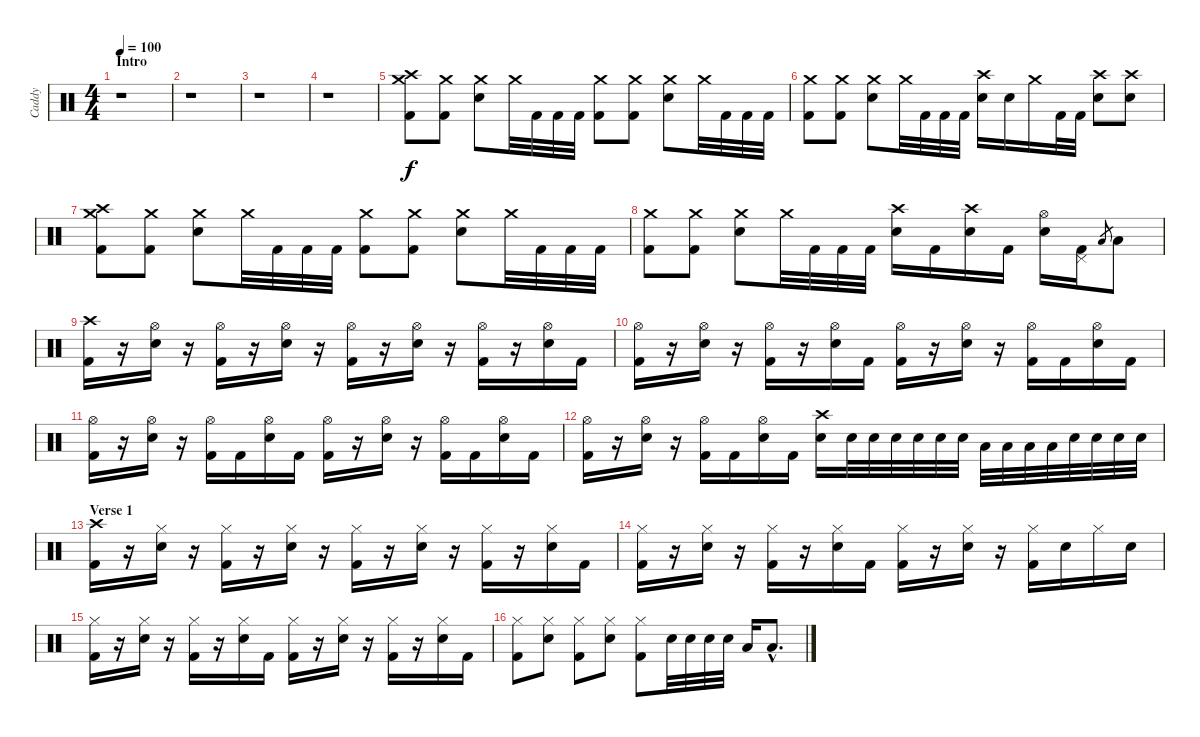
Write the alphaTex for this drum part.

\track ("Caddy" "Caddy") {instrument percussion}
\staff {score}
\articulation defaults
\ts (4 4)
\section ("" "Intro")
\tempo 100
\clef neutral
\ks c
r.1{dy f} |
r.1 |
r.1 |
r.1 |
("Crash medium (hit)" "Crash high (hit)" "Kick (hit) 2").8 ("Crash medium (hit)" "Kick (hit) 2").8 ("Crash medium (hit)" "Electric Snare (hit)").8 "Crash medium (hit)".32 "Kick (hit) 2".32 "Kick (hit) 2".32 "Kick (hit) 2".32 ("Crash medium (hit)" "Kick (hit) 2").8 ("Crash medium (hit)" "Kick (hit) 2").8 ("Crash medium (hit)" "Electric Snare (hit)").8 "Crash medium (hit)".32 "Kick (hit) 2".32 "Kick (hit) 2".32 "Kick (hit) 2".32 |
("Crash medium (hit)" "Kick (hit) 2").8 ("Crash medium (hit)" "Kick (hit) 2").8 ("Crash medium (hit)" "Electric Snare (hit)").8 "Crash medium (hit)".32 "Kick (hit) 2".32 "Kick (hit) 2".32 "Kick (hit) 2".32 ("Crash high (hit)" "Electric Snare (hit)").16 "Electric Snare (hit)".16 "Crash medium (hit)".16 "Kick (hit) 2".32 "Kick (hit) 2".32 ("Crash high (hit)" "Electric Snare (hit)").8 ("Crash high (hit)" "Electric Snare (hit)").8 |
("Crash medium (hit)" "Crash high (hit)" "Kick (hit) 2").8 ("Crash medium (hit)" "Kick (hit) 2").8 ("Crash medium (hit)" "Electric Snare (hit)").8 "Crash medium (hit)".32 "Kick (hit) 2".32 "Kick (hit) 2".32 "Kick (hit) 2".32 ("Crash medium (hit)" "Kick (hit) 2").8 ("Crash medium (hit)" "Kick (hit) 2").8 ("Crash medium (hit)" "Electric Snare (hit)").8 "Crash medium (hit)".32 "Kick (hit) 2".32 "Kick (hit) 2".32 "Kick (hit) 2".32 |
("Crash medium (hit)" "Kick (hit) 2").8 ("Crash medium (hit)" "Kick (hit) 2").8 ("Crash medium (hit)" "Electric Snare (hit)").8 "Crash medium (hit)".32 "Kick (hit) 2".32 "Kick (hit) 2".32 "Kick (hit) 2".32 ("Crash high (hit)" "Electric Snare (hit)").16 "Kick (hit) 2".16 ("Crash high (hit)" "Electric Snare (hit)").16 "Kick (hit) 2".16 ("Hi-Hat (open)" "Electric Snare (hit)").16 ("Pedal Hi-Hat (hit)" "Kick (hit) 2").16 "Low Floor Tom (hit)".8{gr} "Low Floor Tom (hit)".8 |
("Crash high (hit)" "Kick (hit) 2").16 r.16 ("Hi-Hat (open)" "Electric Snare (hit)").16 r.16 ("Hi-Hat (open)" "Kick (hit) 2").16 r.16 ("Hi-Hat (open)" "Electric Snare (hit)").16 r.16 ("Hi-Hat (open)" "Kick (hit) 2").16 r.16 ("Hi-Hat (open)" "Electric Snare (hit)").16 r.16 ("Hi-Hat (open)" "Kick (hit) 2").16 r.16 ("Hi-Hat (open)" "Electric Snare (hit)").16 "Kick (hit) 2".16 |
("Hi-Hat (open)" "Kick (hit) 2").16 r.16 ("Hi-Hat (open)" "Electric Snare (hit)").16 r.16 ("Hi-Hat (open)" "Kick (hit) 2").16 r.16 ("Hi-Hat (open)" "Electric Snare (hit)").16 "Kick (hit) 2".16 ("Hi-Hat (open)" "Kick (hit) 2").16 r.16 ("Hi-Hat (open)" "Electric Snare (hit)").16 r.16 ("Hi-Hat (open)" "Kick (hit) 2").16 "Kick (hit) 2".16 ("Hi-Hat (open)" "Electric Snare (hit)").16 "Kick (hit) 2".16 |
("Hi-Hat (open)" "Kick (hit) 2").16 r.16 ("Hi-Hat (open)" "Electric Snare (hit)").16 r.16 ("Hi-Hat (open)" "Kick (hit) 2").16 "Kick (hit) 2".16 ("Hi-Hat (open)" "Electric Snare (hit)").16 "Kick (hit) 2".16 ("Hi-Hat (open)" "Kick (hit) 2").16 r.16 ("Hi-Hat (open)" "Electric Snare (hit)").16 r.16 ("Hi-Hat (open)" "Kick (hit) 2").16 "Kick (hit) 2".16 ("Hi-Hat (open)" "Electric Snare (hit)").16 "Kick (hit) 2".16 |
("Hi-Hat (open)" "Kick (hit) 2").16 r.16 ("Hi-Hat (open)" "Electric Snare (hit)").16 r.16 ("Hi-Hat (open)" "Kick (hit) 2").16 "Kick (hit) 2".16 ("Hi-Hat (open)" "Electric Snare (hit)").16 "Kick (hit) 2".16 ("Crash high (hit)" "Electric Snare (hit)").16 "Electric Snare (hit)".32 "Electric Snare (hit)".32 "Electric Snare (hit)".32 "Electric Snare (hit)".32 "Electric Snare (hit)".32 "Electric Snare (hit)".32 "Low Tom (hit)".32 "Low Tom (hit)".32 "Low Tom (hit)".32 "Low Tom (hit)".32 "Electric Snare (hit)".32 "Electric Snare (hit)".32 "Electric Snare (hit)".32 "Electric Snare (hit)".32 |
\section ("" "Verse 1")
("Crash high (hit)" "Kick (hit) 2").16 r.16 ("Hi-Hat (closed)" "Electric Snare (hit)").16 r.16 ("Hi-Hat (closed)" "Kick (hit) 2").16 r.16 ("Hi-Hat (closed)" "Electric Snare (hit)").16 r.16 ("Hi-Hat (closed)" "Kick (hit) 2").16 r.16 ("Hi-Hat (closed)" "Electric Snare (hit)").16 r.16 ("Hi-Hat (closed)" "Kick (hit) 2").16 r.16 ("Hi-Hat (closed)" "Electric Snare (hit)").16 "Kick (hit) 2".16 |
("Hi-Hat (closed)" "Kick (hit) 2").16 r.16 ("Hi-Hat (closed)" "Electric Snare (hit)").16 r.16 ("Hi-Hat (closed)" "Kick (hit) 2").16 r.16 ("Hi-Hat (closed)" "Electric Snare (hit)").16 "Kick (hit) 2".16 ("Hi-Hat (closed)" "Kick (hit) 2").16 r.16 ("Hi-Hat (closed)" "Electric Snare (hit)").16 r.16 ("Hi-Hat (closed)" "Kick (hit) 2").16 "Electric Snare (hit)".16 "Hi-Hat (closed)".16 "Electric Snare (hit)".16 |
("Hi-Hat (closed)" "Kick (hit) 2").16 r.16 ("Hi-Hat (closed)" "Electric Snare (hit)").16 r.16 ("Hi-Hat (closed)" "Kick (hit) 2").16 r.16 ("Hi-Hat (closed)" "Electric Snare (hit)").16 "Kick (hit) 2".16 ("Hi-Hat (closed)" "Kick (hit) 2").16 r.16 ("Hi-Hat (closed)" "Electric Snare (hit)").16 r.16 ("Hi-Hat (closed)" "Kick (hit) 2").16 r.16 ("Hi-Hat (closed)" "Electric Snare (hit)").16 "Kick (hit) 2".16 |
("Hi-Hat (closed)" "Kick (hit) 2").8 ("Hi-Hat (closed)" "Electric Snare (hit)").8 ("Hi-Hat (closed)" "Kick (hit) 2").8 ("Hi-Hat (closed)" "Electric Snare (hit)").8 ("Hi-Hat (closed)" "Kick (hit) 2").8 "Electric Snare (hit)".32 "Electric Snare (hit)".32 "Electric Snare (hit)".32 "Electric Snare (hit)".32 "Low Tom (hit)".16 "Low Tom (hit)"{hac}.8{d}
